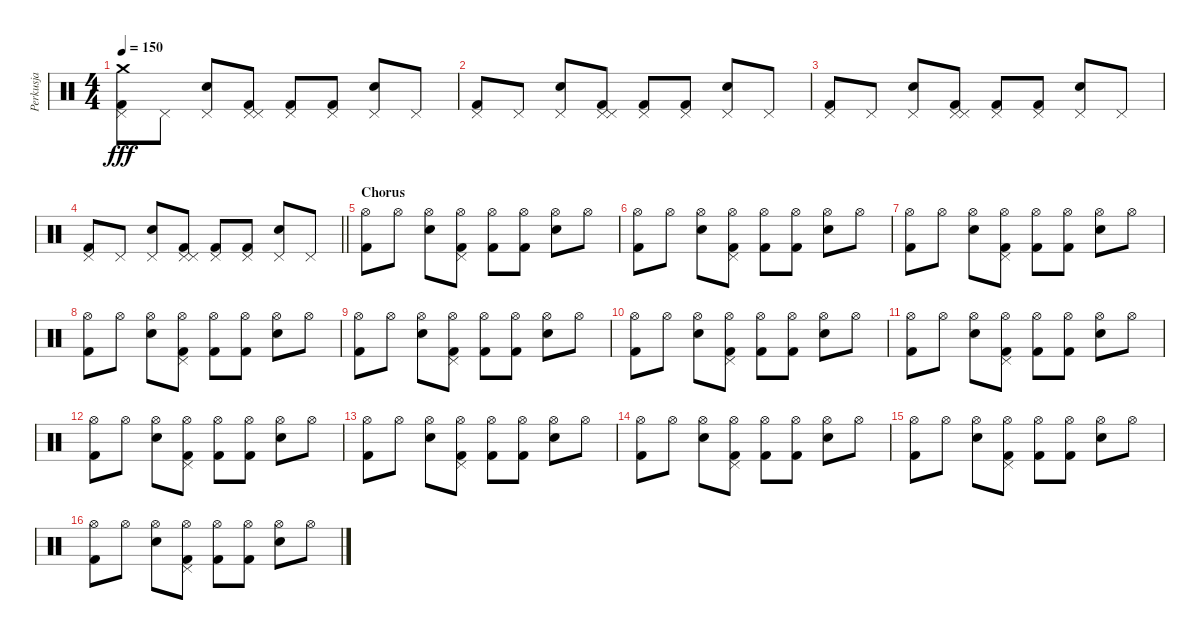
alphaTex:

\track ("Perkusja" "Perkusja") {instrument percussion}
\staff {score}
\articulation defaults
\ts (4 4)
\tempo 150
\clef neutral
\ks c
("Pedal Hi-Hat (hit)" "Kick (hit) 2" "Crash medium (hit)").8{dy fff} "Pedal Hi-Hat (hit)".8 ("Pedal Hi-Hat (hit)" "Electric Snare (hit)").8 ("Pedal Hi-Hat (hit)" "Kick (hit) 2" "Pedal Hi-Hat (hit)").8 ("Pedal Hi-Hat (hit)" "Kick (hit) 2").8 ("Pedal Hi-Hat (hit)" "Kick (hit) 2").8 ("Pedal Hi-Hat (hit)" "Electric Snare (hit)").8 "Pedal Hi-Hat (hit)".8 |
("Pedal Hi-Hat (hit)" "Kick (hit) 2").8 "Pedal Hi-Hat (hit)".8 ("Pedal Hi-Hat (hit)" "Electric Snare (hit)").8 ("Pedal Hi-Hat (hit)" "Kick (hit) 2" "Pedal Hi-Hat (hit)").8 ("Pedal Hi-Hat (hit)" "Kick (hit) 2").8 ("Pedal Hi-Hat (hit)" "Kick (hit) 2").8 ("Pedal Hi-Hat (hit)" "Electric Snare (hit)").8 "Pedal Hi-Hat (hit)".8 |
("Pedal Hi-Hat (hit)" "Kick (hit) 2").8 "Pedal Hi-Hat (hit)".8 ("Pedal Hi-Hat (hit)" "Electric Snare (hit)").8 ("Pedal Hi-Hat (hit)" "Kick (hit) 2" "Pedal Hi-Hat (hit)").8 ("Pedal Hi-Hat (hit)" "Kick (hit) 2").8 ("Pedal Hi-Hat (hit)" "Kick (hit) 2").8 ("Pedal Hi-Hat (hit)" "Electric Snare (hit)").8 "Pedal Hi-Hat (hit)".8 |
\barLineRight lightlight
("Pedal Hi-Hat (hit)" "Kick (hit) 2").8 "Pedal Hi-Hat (hit)".8 ("Pedal Hi-Hat (hit)" "Electric Snare (hit)").8 ("Pedal Hi-Hat (hit)" "Kick (hit) 2" "Pedal Hi-Hat (hit)").8 ("Pedal Hi-Hat (hit)" "Kick (hit) 2").8 ("Pedal Hi-Hat (hit)" "Kick (hit) 2").8 ("Pedal Hi-Hat (hit)" "Electric Snare (hit)").8 "Pedal Hi-Hat (hit)".8 |
\section ("" "Chorus")
("Hi-Hat (open)" "Kick (hit) 2").8 "Hi-Hat (open)".8 ("Hi-Hat (open)" "Electric Snare (hit)").8 ("Hi-Hat (open)" "Kick (hit) 2" "Pedal Hi-Hat (hit)").8 ("Hi-Hat (open)" "Kick (hit) 2").8 ("Hi-Hat (open)" "Kick (hit) 2").8 ("Hi-Hat (open)" "Electric Snare (hit)").8 "Hi-Hat (open)".8 |
("Hi-Hat (open)" "Kick (hit) 2").8 "Hi-Hat (open)".8 ("Hi-Hat (open)" "Electric Snare (hit)").8 ("Hi-Hat (open)" "Kick (hit) 2" "Pedal Hi-Hat (hit)").8 ("Hi-Hat (open)" "Kick (hit) 2").8 ("Hi-Hat (open)" "Kick (hit) 2").8 ("Hi-Hat (open)" "Electric Snare (hit)").8 "Hi-Hat (open)".8 |
("Hi-Hat (open)" "Kick (hit) 2").8 "Hi-Hat (open)".8 ("Hi-Hat (open)" "Electric Snare (hit)").8 ("Hi-Hat (open)" "Kick (hit) 2" "Pedal Hi-Hat (hit)").8 ("Hi-Hat (open)" "Kick (hit) 2").8 ("Hi-Hat (open)" "Kick (hit) 2").8 ("Hi-Hat (open)" "Electric Snare (hit)").8 "Hi-Hat (open)".8 |
("Hi-Hat (open)" "Kick (hit) 2").8 "Hi-Hat (open)".8 ("Hi-Hat (open)" "Electric Snare (hit)").8 ("Hi-Hat (open)" "Kick (hit) 2" "Pedal Hi-Hat (hit)").8 ("Hi-Hat (open)" "Kick (hit) 2").8 ("Hi-Hat (open)" "Kick (hit) 2").8 ("Hi-Hat (open)" "Electric Snare (hit)").8 "Hi-Hat (open)".8 |
("Hi-Hat (open)" "Kick (hit) 2").8 "Hi-Hat (open)".8 ("Hi-Hat (open)" "Electric Snare (hit)").8 ("Hi-Hat (open)" "Kick (hit) 2" "Pedal Hi-Hat (hit)").8 ("Hi-Hat (open)" "Kick (hit) 2").8 ("Hi-Hat (open)" "Kick (hit) 2").8 ("Hi-Hat (open)" "Electric Snare (hit)").8 "Hi-Hat (open)".8 |
("Hi-Hat (open)" "Kick (hit) 2").8 "Hi-Hat (open)".8 ("Hi-Hat (open)" "Electric Snare (hit)").8 ("Hi-Hat (open)" "Kick (hit) 2" "Pedal Hi-Hat (hit)").8 ("Hi-Hat (open)" "Kick (hit) 2").8 ("Hi-Hat (open)" "Kick (hit) 2").8 ("Hi-Hat (open)" "Electric Snare (hit)").8 "Hi-Hat (open)".8 |
("Hi-Hat (open)" "Kick (hit) 2").8 "Hi-Hat (open)".8 ("Hi-Hat (open)" "Electric Snare (hit)").8 ("Hi-Hat (open)" "Kick (hit) 2" "Pedal Hi-Hat (hit)").8 ("Hi-Hat (open)" "Kick (hit) 2").8 ("Hi-Hat (open)" "Kick (hit) 2").8 ("Hi-Hat (open)" "Electric Snare (hit)").8 "Hi-Hat (open)".8 |
("Hi-Hat (open)" "Kick (hit) 2").8 "Hi-Hat (open)".8 ("Hi-Hat (open)" "Electric Snare (hit)").8 ("Hi-Hat (open)" "Kick (hit) 2" "Pedal Hi-Hat (hit)").8 ("Hi-Hat (open)" "Kick (hit) 2").8 ("Hi-Hat (open)" "Kick (hit) 2").8 ("Hi-Hat (open)" "Electric Snare (hit)").8 "Hi-Hat (open)".8 |
("Hi-Hat (open)" "Kick (hit) 2").8 "Hi-Hat (open)".8 ("Hi-Hat (open)" "Electric Snare (hit)").8 ("Hi-Hat (open)" "Kick (hit) 2" "Pedal Hi-Hat (hit)").8 ("Hi-Hat (open)" "Kick (hit) 2").8 ("Hi-Hat (open)" "Kick (hit) 2").8 ("Hi-Hat (open)" "Electric Snare (hit)").8 "Hi-Hat (open)".8 |
("Hi-Hat (open)" "Kick (hit) 2").8 "Hi-Hat (open)".8 ("Hi-Hat (open)" "Electric Snare (hit)").8 ("Hi-Hat (open)" "Kick (hit) 2" "Pedal Hi-Hat (hit)").8 ("Hi-Hat (open)" "Kick (hit) 2").8 ("Hi-Hat (open)" "Kick (hit) 2").8 ("Hi-Hat (open)" "Electric Snare (hit)").8 "Hi-Hat (open)".8 |
("Hi-Hat (open)" "Kick (hit) 2").8 "Hi-Hat (open)".8 ("Hi-Hat (open)" "Electric Snare (hit)").8 ("Hi-Hat (open)" "Kick (hit) 2" "Pedal Hi-Hat (hit)").8 ("Hi-Hat (open)" "Kick (hit) 2").8 ("Hi-Hat (open)" "Kick (hit) 2").8 ("Hi-Hat (open)" "Electric Snare (hit)").8 "Hi-Hat (open)".8 |
("Hi-Hat (open)" "Kick (hit) 2").8 "Hi-Hat (open)".8 ("Hi-Hat (open)" "Electric Snare (hit)").8 ("Hi-Hat (open)" "Kick (hit) 2" "Pedal Hi-Hat (hit)").8 ("Hi-Hat (open)" "Kick (hit) 2").8 ("Hi-Hat (open)" "Kick (hit) 2").8 ("Hi-Hat (open)" "Electric Snare (hit)").8 "Hi-Hat (open)".8
